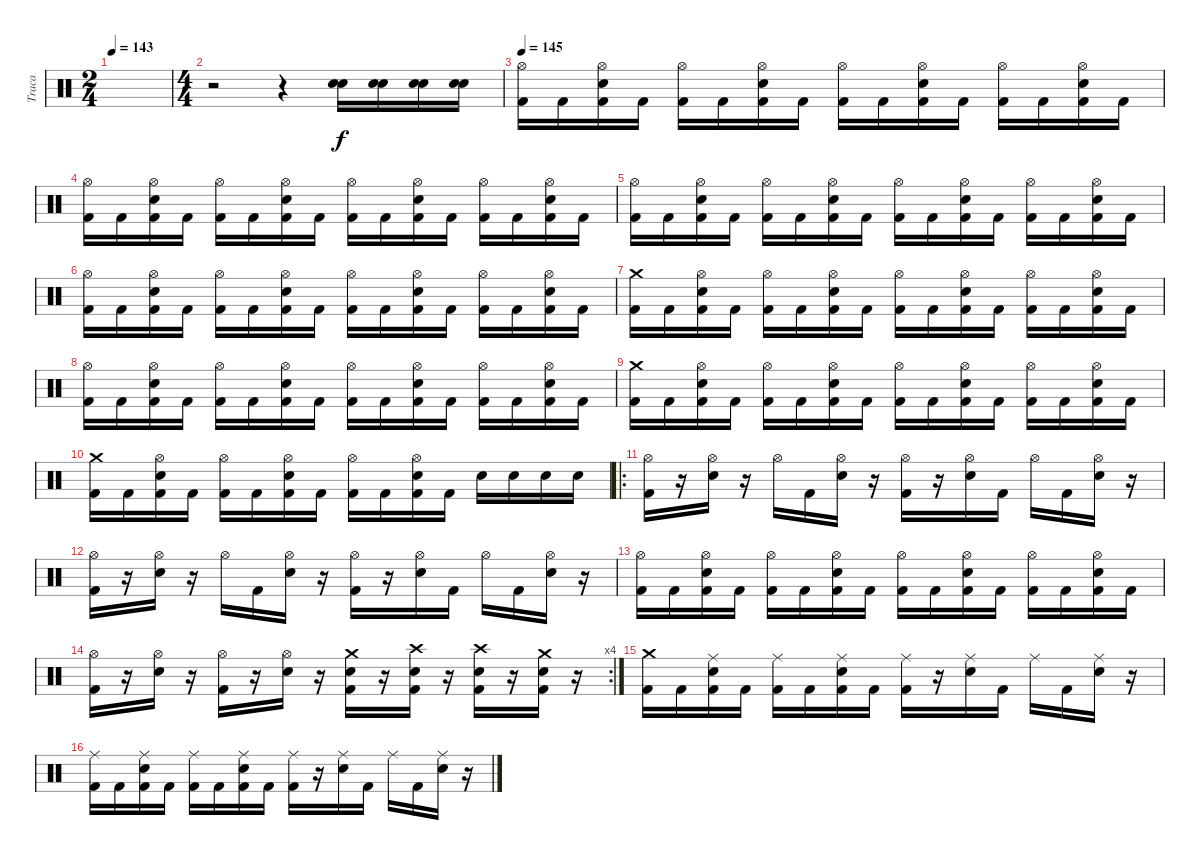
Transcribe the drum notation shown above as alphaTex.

\track ("Traca" "Traca") {instrument percussion}
\staff {score}
\articulation defaults
\ts (2 4)
\tempo 143
\clef neutral
\ks c
|
\ts (4 4)
r.2 r.4 ("Snare (hit) 2" "Snare (hit) 2").16 ("Snare (hit) 2" "Snare (hit) 2").16 ("Snare (hit) 2" "Snare (hit) 2").16 ("Snare (hit) 2" "Snare (hit) 2").16 |
\tempo 145
("Hi-Hat (open)" "Kick (hit) 2").16 "Kick (hit) 2".16 ("Hi-Hat (open)" "Snare (hit) 2" "Kick (hit) 2").16 "Kick (hit) 2".16 ("Hi-Hat (open)" "Kick (hit) 2").16 "Kick (hit) 2".16 ("Hi-Hat (open)" "Snare (hit) 2" "Kick (hit) 2").16 "Kick (hit) 2".16 ("Hi-Hat (open)" "Kick (hit) 2").16 "Kick (hit) 2".16 ("Hi-Hat (open)" "Snare (hit) 2" "Kick (hit) 2").16 "Kick (hit) 2".16 ("Hi-Hat (open)" "Kick (hit) 2").16 "Kick (hit) 2".16 ("Hi-Hat (open)" "Snare (hit) 2" "Kick (hit) 2").16 "Kick (hit) 2".16 |
("Hi-Hat (open)" "Kick (hit) 2").16 "Kick (hit) 2".16 ("Hi-Hat (open)" "Snare (hit) 2" "Kick (hit) 2").16 "Kick (hit) 2".16 ("Hi-Hat (open)" "Kick (hit) 2").16 "Kick (hit) 2".16 ("Hi-Hat (open)" "Snare (hit) 2" "Kick (hit) 2").16 "Kick (hit) 2".16 ("Hi-Hat (open)" "Kick (hit) 2").16 "Kick (hit) 2".16 ("Hi-Hat (open)" "Snare (hit) 2" "Kick (hit) 2").16 "Kick (hit) 2".16 ("Hi-Hat (open)" "Kick (hit) 2").16 "Kick (hit) 2".16 ("Hi-Hat (open)" "Snare (hit) 2" "Kick (hit) 2").16 "Kick (hit) 2".16 |
("Hi-Hat (open)" "Kick (hit) 2").16 "Kick (hit) 2".16 ("Hi-Hat (open)" "Snare (hit) 2" "Kick (hit) 2").16 "Kick (hit) 2".16 ("Hi-Hat (open)" "Kick (hit) 2").16 "Kick (hit) 2".16 ("Hi-Hat (open)" "Snare (hit) 2" "Kick (hit) 2").16 "Kick (hit) 2".16 ("Hi-Hat (open)" "Kick (hit) 2").16 "Kick (hit) 2".16 ("Hi-Hat (open)" "Snare (hit) 2" "Kick (hit) 2").16 "Kick (hit) 2".16 ("Hi-Hat (open)" "Kick (hit) 2").16 "Kick (hit) 2".16 ("Hi-Hat (open)" "Snare (hit) 2" "Kick (hit) 2").16 "Kick (hit) 2".16 |
("Hi-Hat (open)" "Kick (hit) 2").16 "Kick (hit) 2".16 ("Hi-Hat (open)" "Snare (hit) 2" "Kick (hit) 2").16 "Kick (hit) 2".16 ("Hi-Hat (open)" "Kick (hit) 2").16 "Kick (hit) 2".16 ("Hi-Hat (open)" "Snare (hit) 2" "Kick (hit) 2").16 "Kick (hit) 2".16 ("Hi-Hat (open)" "Kick (hit) 2").16 "Kick (hit) 2".16 ("Hi-Hat (open)" "Snare (hit) 2" "Kick (hit) 2").16 "Kick (hit) 2".16 ("Hi-Hat (open)" "Kick (hit) 2").16 "Kick (hit) 2".16 ("Hi-Hat (open)" "Snare (hit) 2" "Kick (hit) 2").16 "Kick (hit) 2".16 |
("Crash medium (hit)" "Kick (hit) 2").16 "Kick (hit) 2".16 ("Hi-Hat (open)" "Snare (hit) 2" "Kick (hit) 2").16 "Kick (hit) 2".16 ("Hi-Hat (open)" "Kick (hit) 2").16 "Kick (hit) 2".16 ("Hi-Hat (open)" "Snare (hit) 2" "Kick (hit) 2").16 "Kick (hit) 2".16 ("Hi-Hat (open)" "Kick (hit) 2").16 "Kick (hit) 2".16 ("Hi-Hat (open)" "Snare (hit) 2" "Kick (hit) 2").16 "Kick (hit) 2".16 ("Hi-Hat (open)" "Kick (hit) 2").16 "Kick (hit) 2".16 ("Hi-Hat (open)" "Snare (hit) 2" "Kick (hit) 2").16 "Kick (hit) 2".16 |
("Hi-Hat (open)" "Kick (hit) 2").16 "Kick (hit) 2".16 ("Hi-Hat (open)" "Snare (hit) 2" "Kick (hit) 2").16 "Kick (hit) 2".16 ("Hi-Hat (open)" "Kick (hit) 2").16 "Kick (hit) 2".16 ("Hi-Hat (open)" "Snare (hit) 2" "Kick (hit) 2").16 "Kick (hit) 2".16 ("Hi-Hat (open)" "Kick (hit) 2").16 "Kick (hit) 2".16 ("Hi-Hat (open)" "Snare (hit) 2" "Kick (hit) 2").16 "Kick (hit) 2".16 ("Hi-Hat (open)" "Kick (hit) 2").16 "Kick (hit) 2".16 ("Hi-Hat (open)" "Snare (hit) 2" "Kick (hit) 2").16 "Kick (hit) 2".16 |
("Crash medium (hit)" "Kick (hit) 2").16 "Kick (hit) 2".16 ("Hi-Hat (open)" "Snare (hit) 2" "Kick (hit) 2").16 "Kick (hit) 2".16 ("Hi-Hat (open)" "Kick (hit) 2").16 "Kick (hit) 2".16 ("Hi-Hat (open)" "Snare (hit) 2" "Kick (hit) 2").16 "Kick (hit) 2".16 ("Hi-Hat (open)" "Kick (hit) 2").16 "Kick (hit) 2".16 ("Hi-Hat (open)" "Snare (hit) 2" "Kick (hit) 2").16 "Kick (hit) 2".16 ("Hi-Hat (open)" "Kick (hit) 2").16 "Kick (hit) 2".16 ("Hi-Hat (open)" "Snare (hit) 2" "Kick (hit) 2").16 "Kick (hit) 2".16 |
("Crash medium (hit)" "Kick (hit) 2").16 "Kick (hit) 2".16 ("Hi-Hat (open)" "Snare (hit) 2" "Kick (hit) 2").16 "Kick (hit) 2".16 ("Hi-Hat (open)" "Kick (hit) 2").16 "Kick (hit) 2".16 ("Hi-Hat (open)" "Snare (hit) 2" "Kick (hit) 2").16 "Kick (hit) 2".16 ("Hi-Hat (open)" "Kick (hit) 2").16 "Kick (hit) 2".16 ("Hi-Hat (open)" "Snare (hit) 2" "Kick (hit) 2").16 "Kick (hit) 2".16 "Snare (hit) 2".16 "Snare (hit) 2".16 "Snare (hit) 2".16 "Snare (hit) 2".16 |
\ro
("Hi-Hat (open)" "Kick (hit) 2").16 r.16 ("Hi-Hat (open)" "Snare (hit) 2").16 r.16 "Hi-Hat (open)".16 "Kick (hit) 2".16 ("Hi-Hat (open)" "Snare (hit) 2").16 r.16 ("Hi-Hat (open)" "Kick (hit) 2").16 r.16 ("Hi-Hat (open)" "Snare (hit) 2").16 "Kick (hit) 2".16 "Hi-Hat (open)".16 "Kick (hit) 2".16 ("Hi-Hat (open)" "Snare (hit) 2").16 r.16 |
("Hi-Hat (open)" "Kick (hit) 2").16 r.16 ("Hi-Hat (open)" "Snare (hit) 2").16 r.16 "Hi-Hat (open)".16 "Kick (hit) 2".16 ("Hi-Hat (open)" "Snare (hit) 2").16 r.16 ("Hi-Hat (open)" "Kick (hit) 2").16 r.16 ("Hi-Hat (open)" "Snare (hit) 2").16 "Kick (hit) 2".16 "Hi-Hat (open)".16 "Kick (hit) 2".16 ("Hi-Hat (open)" "Snare (hit) 2").16 r.16 |
("Hi-Hat (open)" "Kick (hit) 2").16 "Kick (hit) 2".16 ("Hi-Hat (open)" "Snare (hit) 2" "Kick (hit) 2").16 "Kick (hit) 2".16 ("Hi-Hat (open)" "Kick (hit) 2").16 "Kick (hit) 2".16 ("Hi-Hat (open)" "Snare (hit) 2" "Kick (hit) 2").16 "Kick (hit) 2".16 ("Hi-Hat (open)" "Kick (hit) 2").16 "Kick (hit) 2".16 ("Hi-Hat (open)" "Snare (hit) 2" "Kick (hit) 2").16 "Kick (hit) 2".16 ("Hi-Hat (open)" "Kick (hit) 2").16 "Kick (hit) 2".16 ("Hi-Hat (open)" "Snare (hit) 2" "Kick (hit) 2").16 "Kick (hit) 2".16 |
\rc 4
("Hi-Hat (open)" "Kick (hit) 2").16 r.16 ("Hi-Hat (open)" "Snare (hit) 2").16 r.16 ("Hi-Hat (open)" "Kick (hit) 2").16 r.16 ("Hi-Hat (open)" "Snare (hit) 2").16 r.16 ("Crash medium (hit)" "Snare (hit) 2" "Kick (hit) 2").16 r.16 ("Crash high (hit)" "Snare (hit) 2" "Kick (hit) 2").16 r.16 ("Crash high (hit)" "Snare (hit) 2" "Kick (hit) 2").16 r.16 ("Crash medium (hit)" "Snare (hit) 2" "Kick (hit) 2").16 r.16 |
("Crash medium (hit)" "Kick (hit) 2").16 "Kick (hit) 2".16 ("Ride (middle)" "Snare (hit) 2" "Kick (hit) 2").16 "Kick (hit) 2".16 ("Ride (middle)" "Kick (hit) 2").16 "Kick (hit) 2".16 ("Ride (middle)" "Snare (hit) 2" "Kick (hit) 2").16 "Kick (hit) 2".16 ("Ride (middle)" "Kick (hit) 2").16 r.16 ("Ride (middle)" "Snare (hit) 2").16 "Kick (hit) 2".16 "Ride (middle)".16 "Kick (hit) 2".16 ("Ride (middle)" "Snare (hit) 2").16 r.16 |
("Ride (middle)" "Kick (hit) 2").16 "Kick (hit) 2".16 ("Ride (middle)" "Snare (hit) 2" "Kick (hit) 2").16 "Kick (hit) 2".16 ("Ride (middle)" "Kick (hit) 2").16 "Kick (hit) 2".16 ("Ride (middle)" "Snare (hit) 2" "Kick (hit) 2").16 "Kick (hit) 2".16 ("Ride (middle)" "Kick (hit) 2").16 r.16 ("Ride (middle)" "Snare (hit) 2").16 "Kick (hit) 2".16 "Ride (middle)".16 "Kick (hit) 2".16 ("Ride (middle)" "Snare (hit) 2").16 r.16
